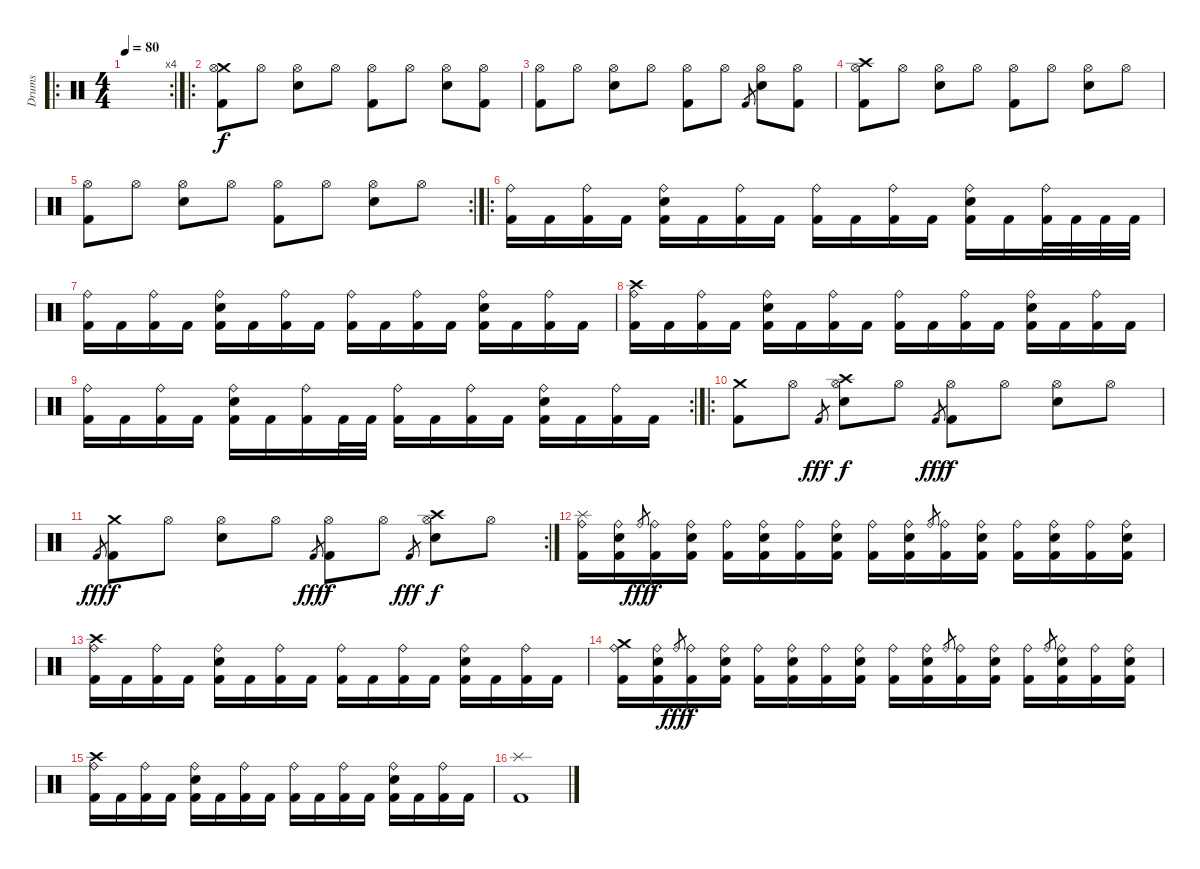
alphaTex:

\track ("Drums" "Drums") {instrument percussion}
\staff {score}
\articulation defaults
\ro
\rc 4
\ts (4 4)
\tempo 80
\clef neutral
\ks c
|
\ro
("Crash medium (hit)" "Hi-Hat (open)" "Kick (hit) 2").8 "Hi-Hat (open)".8 ("Hi-Hat (open)" "Electric Snare (hit)").8 "Hi-Hat (open)".8 ("Hi-Hat (open)" "Kick (hit) 2").8 "Hi-Hat (open)".8 ("Hi-Hat (open)" "Electric Snare (hit)").8 ("Hi-Hat (open)" "Kick (hit) 2").8 |
("Hi-Hat (open)" "Kick (hit) 2").8 "Hi-Hat (open)".8 ("Hi-Hat (open)" "Electric Snare (hit)").8 "Hi-Hat (open)".8 ("Hi-Hat (open)" "Kick (hit) 2").8 "Hi-Hat (open)".8 "Kick (hit) 2".8{gr} ("Hi-Hat (open)" "Electric Snare (hit)").8 ("Hi-Hat (open)" "Kick (hit) 2").8 |
("Crash high (hit)" "Hi-Hat (open)" "Kick (hit) 2").8 "Hi-Hat (open)".8 ("Hi-Hat (open)" "Electric Snare (hit)").8 "Hi-Hat (open)".8 ("Hi-Hat (open)" "Kick (hit) 2").8 "Hi-Hat (open)".8 ("Hi-Hat (open)" "Electric Snare (hit)").8 "Hi-Hat (open)".8 |
\rc 2
("Hi-Hat (open)" "Kick (hit) 2").8 "Hi-Hat (open)".8 ("Hi-Hat (open)" "Electric Snare (hit)").8 "Hi-Hat (open)".8 ("Hi-Hat (open)" "Kick (hit) 2").8 "Hi-Hat (open)".8 ("Hi-Hat (open)" "Electric Snare (hit)").8 "Hi-Hat (open)".8 |
\ro
("Ride (bell)" "Kick (hit) 2").16 "Kick (hit) 2".16 ("Ride (bell)" "Kick (hit) 2").16 "Kick (hit) 2".16 ("Electric Snare (hit)" "Ride (bell)" "Kick (hit) 2").16 "Kick (hit) 2".16 ("Ride (bell)" "Kick (hit) 2").16 "Kick (hit) 2".16 ("Ride (bell)" "Kick (hit) 2").16 "Kick (hit) 2".16 ("Ride (bell)" "Kick (hit) 2").16 "Kick (hit) 2".16 ("Electric Snare (hit)" "Ride (bell)" "Kick (hit) 2").16 "Kick (hit) 2".16 ("Ride (bell)" "Kick (hit) 2").32 "Kick (hit) 2".32 "Kick (hit) 2".32 "Kick (hit) 2".32 |
("Ride (bell)" "Kick (hit) 2").16 "Kick (hit) 2".16 ("Ride (bell)" "Kick (hit) 2").16 "Kick (hit) 2".16 ("Electric Snare (hit)" "Ride (bell)" "Kick (hit) 2").16 "Kick (hit) 2".16 ("Ride (bell)" "Kick (hit) 2").16 "Kick (hit) 2".16 ("Ride (bell)" "Kick (hit) 2").16 "Kick (hit) 2".16 ("Ride (bell)" "Kick (hit) 2").16 "Kick (hit) 2".16 ("Electric Snare (hit)" "Ride (bell)" "Kick (hit) 2").16 "Kick (hit) 2".16 ("Ride (bell)" "Kick (hit) 2").16 "Kick (hit) 2".16 |
("Crash high (hit)" "Ride (bell)" "Kick (hit) 2").16 "Kick (hit) 2".16 ("Ride (bell)" "Kick (hit) 2").16 "Kick (hit) 2".16 ("Electric Snare (hit)" "Ride (bell)" "Kick (hit) 2").16 "Kick (hit) 2".16 ("Ride (bell)" "Kick (hit) 2").16 "Kick (hit) 2".16 ("Ride (bell)" "Kick (hit) 2").16 "Kick (hit) 2".16 ("Ride (bell)" "Kick (hit) 2").16 "Kick (hit) 2".16 ("Electric Snare (hit)" "Ride (bell)" "Kick (hit) 2").16 "Kick (hit) 2".16 ("Ride (bell)" "Kick (hit) 2").16 "Kick (hit) 2".16 |
\rc 2
("Ride (bell)" "Kick (hit) 2").16 "Kick (hit) 2".16 ("Ride (bell)" "Kick (hit) 2").16 "Kick (hit) 2".16 ("Electric Snare (hit)" "Ride (bell)" "Kick (hit) 2").16 "Kick (hit) 2".16 ("Ride (bell)" "Kick (hit) 2").16 "Kick (hit) 2".32 "Kick (hit) 2".32 ("Ride (bell)" "Kick (hit) 2").16 "Kick (hit) 2".16 ("Ride (bell)" "Kick (hit) 2").16 "Kick (hit) 2".16 ("Electric Snare (hit)" "Ride (bell)" "Kick (hit) 2").16 "Kick (hit) 2".16 ("Ride (bell)" "Kick (hit) 2").16 "Kick (hit) 2".16 |
\ro
("Crash medium (hit)" "Kick (hit) 2").8 "Hi-Hat (open)".8 "Kick (hit) 2".8{gr dy fff} ("Hi-Hat (open)" "Electric Snare (hit)" "Crash high (hit)").8{dy f} "Hi-Hat (open)".8 "Kick (hit) 2".8{gr dy fff} ("Hi-Hat (open)" "Kick (hit) 2").8{dy f} "Hi-Hat (open)".8 ("Hi-Hat (open)" "Electric Snare (hit)").8 "Hi-Hat (open)".8 |
\rc 2 "Kick (hit) 2".8{gr dy fff}
("Crash medium (hit)" "Kick (hit) 2").8{dy f} "Hi-Hat (open)".8 ("Hi-Hat (open)" "Electric Snare (hit)").8 "Hi-Hat (open)".8 "Kick (hit) 2".8{gr dy fff} ("Hi-Hat (open)" "Kick (hit) 2").8{dy f} "Hi-Hat (open)".8 "Kick (hit) 2".8{gr dy fff} ("Hi-Hat (open)" "Electric Snare (hit)" "Crash high (hit)").8{dy f} "Hi-Hat (open)".8 |
("Splash (hit)" "Ride (bell)" "Kick (hit) 2").16 ("Electric Snare (hit)" "Ride (bell)" "Kick (hit) 2").16 "Ride (bell)".8{gr dy fff} ("Ride (bell)" "Kick (hit) 2").16{dy f} ("Electric Snare (hit)" "Ride (bell)" "Kick (hit) 2").16 ("Ride (bell)" "Kick (hit) 2").16 ("Electric Snare (hit)" "Ride (bell)" "Kick (hit) 2").16 ("Ride (bell)" "Kick (hit) 2").16 ("Electric Snare (hit)" "Ride (bell)" "Kick (hit) 2").16 ("Ride (bell)" "Kick (hit) 2").16 ("Electric Snare (hit)" "Ride (bell)" "Kick (hit) 2").16 "Ride (bell)".8{gr} ("Ride (bell)" "Kick (hit) 2").16 ("Electric Snare (hit)" "Ride (bell)" "Kick (hit) 2").16 ("Ride (bell)" "Kick (hit) 2").16 ("Electric Snare (hit)" "Ride (bell)" "Kick (hit) 2").16 ("Ride (bell)" "Kick (hit) 2").16 ("Electric Snare (hit)" "Ride (bell)" "Kick (hit) 2").16 |
("Crash high (hit)" "Ride (bell)" "Kick (hit) 2").16 "Kick (hit) 2".16 ("Ride (bell)" "Kick (hit) 2").16 "Kick (hit) 2".16 ("Electric Snare (hit)" "Ride (bell)" "Kick (hit) 2").16 "Kick (hit) 2".16 ("Ride (bell)" "Kick (hit) 2").16 "Kick (hit) 2".16 ("Ride (bell)" "Kick (hit) 2").16 "Kick (hit) 2".16 ("Ride (bell)" "Kick (hit) 2").16 "Kick (hit) 2".16 ("Electric Snare (hit)" "Ride (bell)" "Kick (hit) 2").16 "Kick (hit) 2".16 ("Ride (bell)" "Kick (hit) 2").16 "Kick (hit) 2".16 |
("Crash medium (hit)" "Ride (bell)" "Kick (hit) 2").16 ("Electric Snare (hit)" "Ride (bell)" "Kick (hit) 2").16 "Ride (bell)".8{gr dy fff} ("Ride (bell)" "Kick (hit) 2").16{dy f} ("Electric Snare (hit)" "Ride (bell)" "Kick (hit) 2").16 ("Ride (bell)" "Kick (hit) 2").16 ("Electric Snare (hit)" "Ride (bell)" "Kick (hit) 2").16 ("Ride (bell)" "Kick (hit) 2").16 ("Electric Snare (hit)" "Ride (bell)" "Kick (hit) 2").16 ("Ride (bell)" "Kick (hit) 2").16 ("Electric Snare (hit)" "Ride (bell)" "Kick (hit) 2").16 "Ride (bell)".8{gr} ("Ride (bell)" "Kick (hit) 2").16 ("Electric Snare (hit)" "Ride (bell)" "Kick (hit) 2").16 ("Ride (bell)" "Kick (hit) 2").16 "Ride (bell)".8{gr} ("Electric Snare (hit)" "Ride (bell)" "Kick (hit) 2").16 ("Ride (bell)" "Kick (hit) 2").16 ("Electric Snare (hit)" "Ride (bell)" "Kick (hit) 2").16 |
("Crash high (hit)" "Ride (bell)" "Kick (hit) 2").16 "Kick (hit) 2".16 ("Ride (bell)" "Kick (hit) 2").16 "Kick (hit) 2".16 ("Electric Snare (hit)" "Ride (bell)" "Kick (hit) 2").16 "Kick (hit) 2".16 ("Ride (bell)" "Kick (hit) 2").16 "Kick (hit) 2".16 ("Ride (bell)" "Kick (hit) 2").16 "Kick (hit) 2".16 ("Ride (bell)" "Kick (hit) 2").16 "Kick (hit) 2".16 ("Electric Snare (hit)" "Ride (bell)" "Kick (hit) 2").16 "Kick (hit) 2".16 ("Ride (bell)" "Kick (hit) 2").16 "Kick (hit) 2".16 |
("Splash (hit)" "Kick (hit) 2").1
